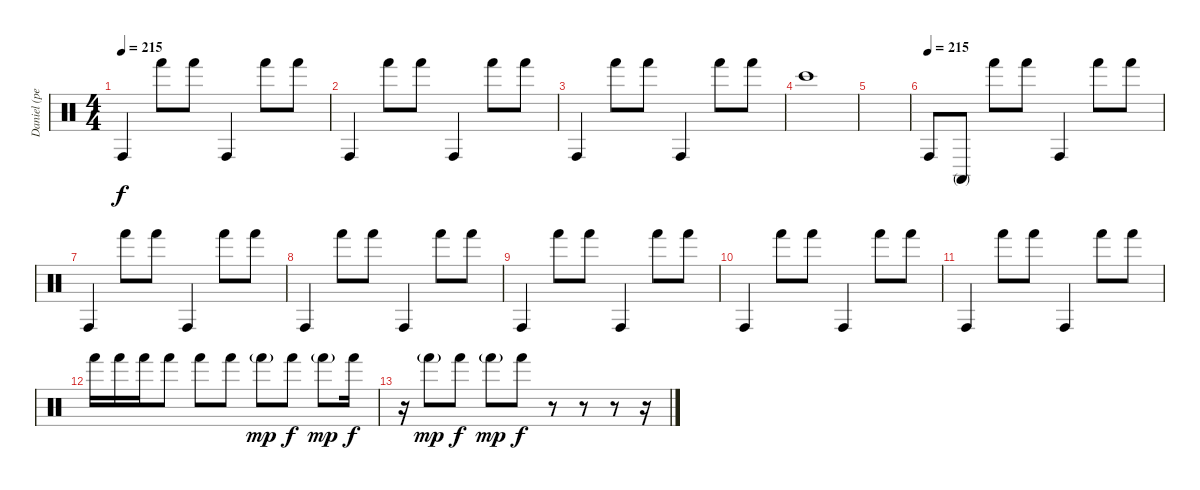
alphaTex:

\track ("Daniel (percussion)" "Daniel (pe") {instrument percussion}
\staff {score}
\articulation defaults
\ts (4 4)
\tempo 215
\clef neutral
\ks c "Conga high (hit)".4{dy f} "Hand (hit)".8 "Hand (hit)".8 "Conga high (hit)".4 "Hand (hit)".8 "Hand (hit)".8
|
"Conga high (hit)".4 "Hand (hit)".8 "Hand (hit)".8 "Conga high (hit)".4 "Hand (hit)".8 "Hand (hit)".8 |
"Conga high (hit)".4 "Hand (hit)".8 "Hand (hit)".8 "Conga high (hit)".4 "Hand (hit)".8 "Hand (hit)".8 |
"Bongo High (hit)".1 |
|
\tempo (215)
"Conga high (hit)".8 "Conga high (mute)".8 "Hand (hit)".8 "Hand (hit)".8 "Conga high (hit)".4 "Hand (hit)".8 "Hand (hit)".8 |
"Conga high (hit)".4 "Hand (hit)".8 "Hand (hit)".8 "Conga high (hit)".4 "Hand (hit)".8 "Hand (hit)".8 |
"Conga high (hit)".4 "Hand (hit)".8 "Hand (hit)".8 "Conga high (hit)".4 "Hand (hit)".8 "Hand (hit)".8 |
"Conga high (hit)".4 "Hand (hit)".8 "Hand (hit)".8 "Conga high (hit)".4 "Hand (hit)".8 "Hand (hit)".8 |
"Conga high (hit)".4 "Hand (hit)".8 "Hand (hit)".8 "Conga high (hit)".4 "Hand (hit)".8 "Hand (hit)".8 |
"Conga high (hit)".4 "Hand (hit)".8 "Hand (hit)".8 "Conga high (hit)".4 "Hand (hit)".8 "Hand (hit)".8 |
"Hand (hit)".16 "Hand (hit)".16 "Hand (hit)".16 "Hand (hit)".8 "Hand (hit)".8 "Hand (hit)".8 "Hand (hit)"{g}.8{dy mp} "Hand (hit)".8{dy f} "Hand (hit)"{g}.8{dy mp} "Hand (hit)".16{dy f} |
r.16 "Hand (hit)"{g}.8{dy mp} "Hand (hit)".8{dy f} "Hand (hit)"{g}.8{dy mp} "Hand (hit)".8{dy f} r.8 r.8 r.8 r.16
